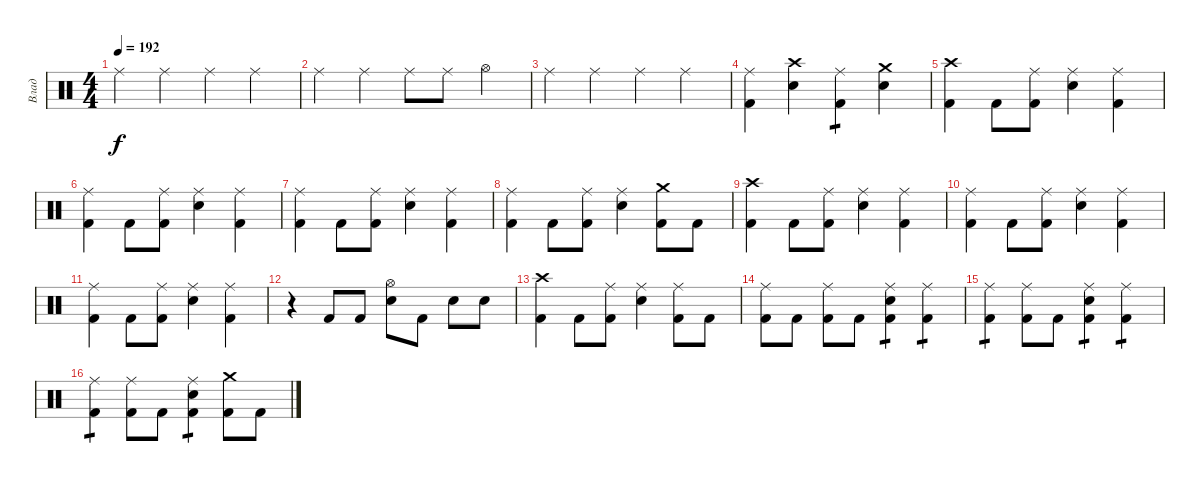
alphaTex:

\track ("Влад" "Влад") {instrument percussion}
\staff {score}
\articulation defaults
\ts (4 4)
\tempo 192
\clef neutral
\ks c "Ride (middle)".4{dy f} "Ride (middle)".4 "Ride (middle)".4 "Ride (middle)".4
|
"Ride (middle)".4 "Ride (middle)".4 "Ride (middle)".8 "Ride (middle)".8 "Hi-Hat (open)".4 |
"Ride (middle)".4 "Ride (middle)".4 "Ride (middle)".4 "Ride (middle)".4 |
("Ride (middle)" "Kick (hit) 2").4 ("Crash high (hit)" "Snare (hit) 2").4 ("Ride (middle)" "Kick (hit) 2").4{tp 1} ("Crash medium (hit)" "Snare (hit) 2").4 |
("Crash high (hit)" "Kick (hit) 2").4 "Kick (hit) 2".8 ("Ride (middle)" "Kick (hit) 2").8 ("Ride (middle)" "Snare (hit) 2").4 ("Ride (middle)" "Kick (hit) 2").4 |
("Ride (middle)" "Kick (hit) 2").4 "Kick (hit) 2".8 ("Ride (middle)" "Kick (hit) 2").8 ("Ride (middle)" "Snare (hit) 2").4 ("Ride (middle)" "Kick (hit) 2").4 |
("Ride (middle)" "Kick (hit) 2").4 "Kick (hit) 2".8 ("Ride (middle)" "Kick (hit) 2").8 ("Ride (middle)" "Snare (hit) 2").4 ("Ride (middle)" "Kick (hit) 2").4 |
("Ride (middle)" "Kick (hit) 2").4 "Kick (hit) 2".8 ("Ride (middle)" "Kick (hit) 2").8 ("Ride (middle)" "Snare (hit) 2").4 ("Crash medium (hit)" "Kick (hit) 2").8 "Kick (hit) 2".8 |
("Crash high (hit)" "Kick (hit) 2").4 "Kick (hit) 2".8 ("Ride (middle)" "Kick (hit) 2").8 ("Ride (middle)" "Snare (hit) 2").4 ("Ride (middle)" "Kick (hit) 2").4 |
("Ride (middle)" "Kick (hit) 2").4 "Kick (hit) 2".8 ("Ride (middle)" "Kick (hit) 2").8 ("Ride (middle)" "Snare (hit) 2").4 ("Ride (middle)" "Kick (hit) 2").4 |
("Ride (middle)" "Kick (hit) 2").4 "Kick (hit) 2".8 ("Ride (middle)" "Kick (hit) 2").8 ("Ride (middle)" "Snare (hit) 2").4 ("Ride (middle)" "Kick (hit) 2").4 |
r.4 "Kick (hit) 2".8 "Kick (hit) 2".8 ("Hi-Hat (open)" "Snare (hit) 2").8 "Kick (hit) 2".8 "Snare (hit) 2".8 "Snare (hit) 2".8 |
("Crash high (hit)" "Kick (hit) 2").4 "Kick (hit) 2".8 ("Ride (middle)" "Kick (hit) 2").8 ("Ride (middle)" "Snare (hit) 2").4 ("Ride (middle)" "Kick (hit) 2").8 "Kick (hit) 2".8 |
("Ride (middle)" "Kick (hit) 2").8 "Kick (hit) 2".8 ("Ride (middle)" "Kick (hit) 2").8 "Kick (hit) 2".8 ("Ride (middle)" "Kick (hit) 2" "Snare (hit) 2").4{tp 1} ("Ride (middle)" "Kick (hit) 2").4{tp 1} |
("Ride (middle)" "Kick (hit) 2").4{tp 1} ("Ride (middle)" "Kick (hit) 2").8 "Kick (hit) 2".8 ("Ride (middle)" "Kick (hit) 2" "Snare (hit) 2").4{tp 1} ("Ride (middle)" "Kick (hit) 2").4{tp 1} |
("Ride (middle)" "Kick (hit) 2").4{tp 1} ("Ride (middle)" "Kick (hit) 2").8 "Kick (hit) 2".8 ("Ride (middle)" "Kick (hit) 2" "Snare (hit) 2").4{tp 1} ("Crash medium (hit)" "Kick (hit) 2").8 "Kick (hit) 2".8
